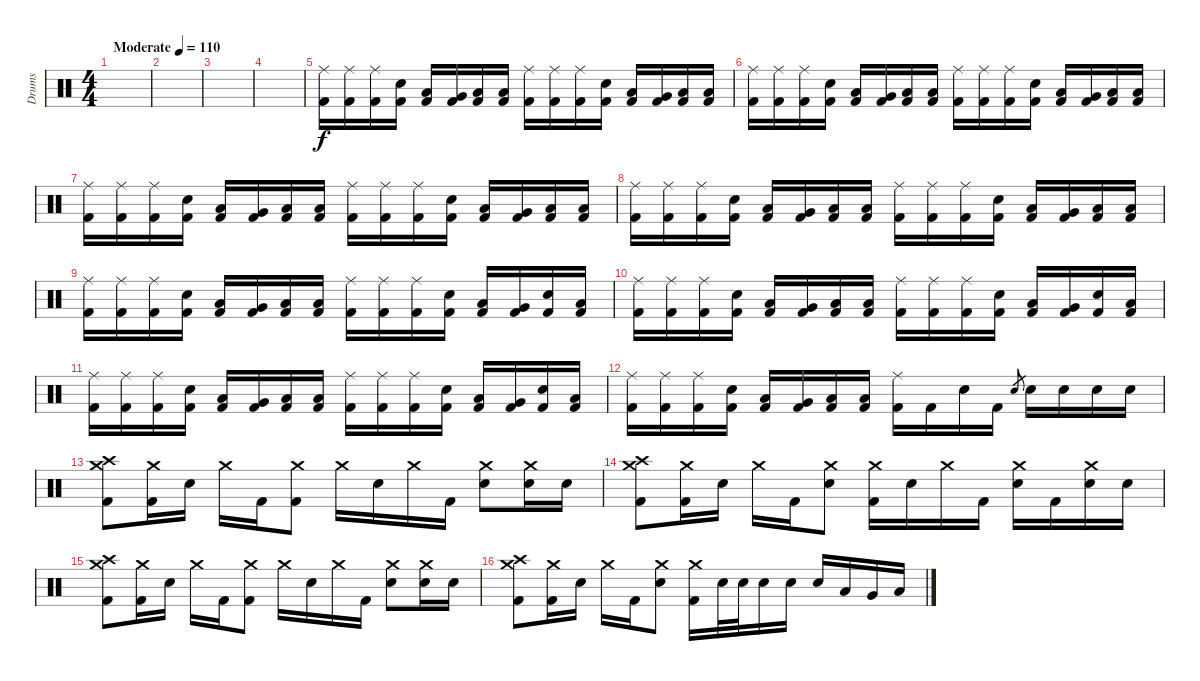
\track ("Drums" "Drums") {instrument percussion}
\staff {score}
\articulation defaults
\ts (4 4)
\tempo (110 "Moderate")
\clef neutral
\ks c
|
|
|
|
("Ride (middle)" "Kick (hit) 2").16 ("Ride (middle)" "Kick (hit) 2").16 ("Ride (middle)" "Kick (hit) 2").16 ("Electric Snare (hit)" "Kick (hit) 2").16 ("Low Tom (hit)" "Kick (hit) 2").16 ("Very Low Tom (hit)" "Kick (hit) 2").16 ("Low Floor Tom (hit)" "Kick (hit) 2").16 ("Low Floor Tom (hit)" "Kick (hit) 2").16 ("Ride (middle)" "Kick (hit) 2").16 ("Ride (middle)" "Kick (hit) 2").16 ("Ride (middle)" "Kick (hit) 2").16 ("Electric Snare (hit)" "Kick (hit) 2").16 ("Low Tom (hit)" "Kick (hit) 2").16 ("Very Low Tom (hit)" "Kick (hit) 2").16 ("Low Floor Tom (hit)" "Kick (hit) 2").16 ("Low Floor Tom (hit)" "Kick (hit) 2").16 |
("Ride (middle)" "Kick (hit) 2").16 ("Ride (middle)" "Kick (hit) 2").16 ("Ride (middle)" "Kick (hit) 2").16 ("Electric Snare (hit)" "Kick (hit) 2").16 ("Low Tom (hit)" "Kick (hit) 2").16 ("Very Low Tom (hit)" "Kick (hit) 2").16 ("Low Floor Tom (hit)" "Kick (hit) 2").16 ("Low Floor Tom (hit)" "Kick (hit) 2").16 ("Ride (middle)" "Kick (hit) 2").16 ("Ride (middle)" "Kick (hit) 2").16 ("Ride (middle)" "Kick (hit) 2").16 ("Electric Snare (hit)" "Kick (hit) 2").16 ("Low Tom (hit)" "Kick (hit) 2").16 ("Very Low Tom (hit)" "Kick (hit) 2").16 ("Low Floor Tom (hit)" "Kick (hit) 2").16 ("Low Floor Tom (hit)" "Kick (hit) 2").16 |
("Ride (middle)" "Kick (hit) 2").16 ("Ride (middle)" "Kick (hit) 2").16 ("Ride (middle)" "Kick (hit) 2").16 ("Electric Snare (hit)" "Kick (hit) 2").16 ("Low Tom (hit)" "Kick (hit) 2").16 ("Very Low Tom (hit)" "Kick (hit) 2").16 ("Low Floor Tom (hit)" "Kick (hit) 2").16 ("Low Floor Tom (hit)" "Kick (hit) 2").16 ("Ride (middle)" "Kick (hit) 2").16 ("Ride (middle)" "Kick (hit) 2").16 ("Ride (middle)" "Kick (hit) 2").16 ("Electric Snare (hit)" "Kick (hit) 2").16 ("Low Tom (hit)" "Kick (hit) 2").16 ("Very Low Tom (hit)" "Kick (hit) 2").16 ("Low Floor Tom (hit)" "Kick (hit) 2").16 ("Low Floor Tom (hit)" "Kick (hit) 2").16 |
("Ride (middle)" "Kick (hit) 2").16 ("Ride (middle)" "Kick (hit) 2").16 ("Ride (middle)" "Kick (hit) 2").16 ("Electric Snare (hit)" "Kick (hit) 2").16 ("Low Tom (hit)" "Kick (hit) 2").16 ("Very Low Tom (hit)" "Kick (hit) 2").16 ("Low Floor Tom (hit)" "Kick (hit) 2").16 ("Low Floor Tom (hit)" "Kick (hit) 2").16 ("Ride (middle)" "Kick (hit) 2").16 ("Ride (middle)" "Kick (hit) 2").16 ("Ride (middle)" "Kick (hit) 2").16 ("Electric Snare (hit)" "Kick (hit) 2").16 ("Low Tom (hit)" "Kick (hit) 2").16 ("Very Low Tom (hit)" "Kick (hit) 2").16 ("Low Floor Tom (hit)" "Kick (hit) 2").16 ("Low Floor Tom (hit)" "Kick (hit) 2").16 |
("Ride (middle)" "Kick (hit) 2").16 ("Ride (middle)" "Kick (hit) 2").16 ("Ride (middle)" "Kick (hit) 2").16 ("Electric Snare (hit)" "Kick (hit) 2").16 ("Low Tom (hit)" "Kick (hit) 2").16 ("Very Low Tom (hit)" "Kick (hit) 2").16 ("Low Floor Tom (hit)" "Kick (hit) 2").16 ("Low Floor Tom (hit)" "Kick (hit) 2").16 ("Ride (middle)" "Kick (hit) 2").16 ("Ride (middle)" "Kick (hit) 2").16 ("Ride (middle)" "Kick (hit) 2").16 ("Electric Snare (hit)" "Kick (hit) 2").16 ("Low Tom (hit)" "Kick (hit) 2").16 ("Very Low Tom (hit)" "Kick (hit) 2").16 ("Electric Snare (hit)" "Kick (hit) 2").16 ("Low Floor Tom (hit)" "Kick (hit) 2").16 |
("Ride (middle)" "Kick (hit) 2").16 ("Ride (middle)" "Kick (hit) 2").16 ("Ride (middle)" "Kick (hit) 2").16 ("Electric Snare (hit)" "Kick (hit) 2").16 ("Low Tom (hit)" "Kick (hit) 2").16 ("Very Low Tom (hit)" "Kick (hit) 2").16 ("Low Floor Tom (hit)" "Kick (hit) 2").16 ("Low Floor Tom (hit)" "Kick (hit) 2").16 ("Ride (middle)" "Kick (hit) 2").16 ("Ride (middle)" "Kick (hit) 2").16 ("Ride (middle)" "Kick (hit) 2").16 ("Electric Snare (hit)" "Kick (hit) 2").16 ("Low Tom (hit)" "Kick (hit) 2").16 ("Very Low Tom (hit)" "Kick (hit) 2").16 ("Electric Snare (hit)" "Kick (hit) 2").16 ("Low Floor Tom (hit)" "Kick (hit) 2").16 |
("Ride (middle)" "Kick (hit) 2").16 ("Ride (middle)" "Kick (hit) 2").16 ("Ride (middle)" "Kick (hit) 2").16 ("Electric Snare (hit)" "Kick (hit) 2").16 ("Low Tom (hit)" "Kick (hit) 2").16 ("Very Low Tom (hit)" "Kick (hit) 2").16 ("Low Floor Tom (hit)" "Kick (hit) 2").16 ("Low Floor Tom (hit)" "Kick (hit) 2").16 ("Ride (middle)" "Kick (hit) 2").16 ("Ride (middle)" "Kick (hit) 2").16 ("Ride (middle)" "Kick (hit) 2").16 ("Electric Snare (hit)" "Kick (hit) 2").16 ("Low Tom (hit)" "Kick (hit) 2").16 ("Very Low Tom (hit)" "Kick (hit) 2").16 ("Electric Snare (hit)" "Kick (hit) 2").16 ("Low Floor Tom (hit)" "Kick (hit) 2").16 |
("Ride (middle)" "Kick (hit) 2").16 ("Ride (middle)" "Kick (hit) 2").16 ("Ride (middle)" "Kick (hit) 2").16 ("Electric Snare (hit)" "Kick (hit) 2").16 ("Low Tom (hit)" "Kick (hit) 2").16 ("Very Low Tom (hit)" "Kick (hit) 2").16 ("Low Floor Tom (hit)" "Kick (hit) 2").16 ("Low Floor Tom (hit)" "Kick (hit) 2").16 ("Ride (middle)" "Kick (hit) 2").16 "Kick (hit) 2".16 "Electric Snare (hit)".16 "Kick (hit) 2".16 "Electric Snare (hit)".8{gr} "Electric Snare (hit)".16 "Electric Snare (hit)".16 "Electric Snare (hit)".16 "Electric Snare (hit)".16 |
("Crash medium (hit)" "Crash high (hit)" "Kick (hit) 2").8 ("Crash medium (hit)" "Kick (hit) 2").16 "Electric Snare (hit)".16 "Crash medium (hit)".16 "Kick (hit) 2".16 ("Crash medium (hit)" "Kick (hit) 2").8 "Crash medium (hit)".16 "Electric Snare (hit)".16 "Crash medium (hit)".16 "Kick (hit) 2".16 ("Crash medium (hit)" "Electric Snare (hit)").8 ("Crash medium (hit)" "Electric Snare (hit)").16 "Electric Snare (hit)".16 |
("Crash medium (hit)" "Crash high (hit)" "Kick (hit) 2").8 ("Crash medium (hit)" "Kick (hit) 2").16 "Electric Snare (hit)".16 "Crash medium (hit)".16 "Kick (hit) 2".16 ("Crash medium (hit)" "Electric Snare (hit)").8 ("Crash medium (hit)" "Kick (hit) 2").16 "Electric Snare (hit)".16 "Crash medium (hit)".16 "Kick (hit) 2".16 ("Crash medium (hit)" "Electric Snare (hit)").16 "Kick (hit) 2".16 ("Crash medium (hit)" "Electric Snare (hit)").16 "Electric Snare (hit)".16 |
("Crash medium (hit)" "Crash high (hit)" "Kick (hit) 2").8 ("Crash medium (hit)" "Kick (hit) 2").16 "Electric Snare (hit)".16 "Crash medium (hit)".16 "Kick (hit) 2".16 ("Crash medium (hit)" "Kick (hit) 2").8 "Crash medium (hit)".16 "Electric Snare (hit)".16 "Crash medium (hit)".16 "Kick (hit) 2".16 ("Crash medium (hit)" "Electric Snare (hit)").8 ("Crash medium (hit)" "Electric Snare (hit)").16 "Electric Snare (hit)".16 |
("Crash medium (hit)" "Crash high (hit)" "Kick (hit) 2").8 ("Crash medium (hit)" "Kick (hit) 2").16 "Electric Snare (hit)".16 "Crash medium (hit)".16 "Kick (hit) 2".16 ("Crash medium (hit)" "Electric Snare (hit)").8 ("Crash medium (hit)" "Kick (hit) 2").16 "Electric Snare (hit)".32 "Electric Snare (hit)".32 "Electric Snare (hit)".16 "Electric Snare (hit)".16 "Electric Snare (hit)".16 "Low Tom (hit)".16 "Very Low Tom (hit)".16 "Low Floor Tom (hit)".16
